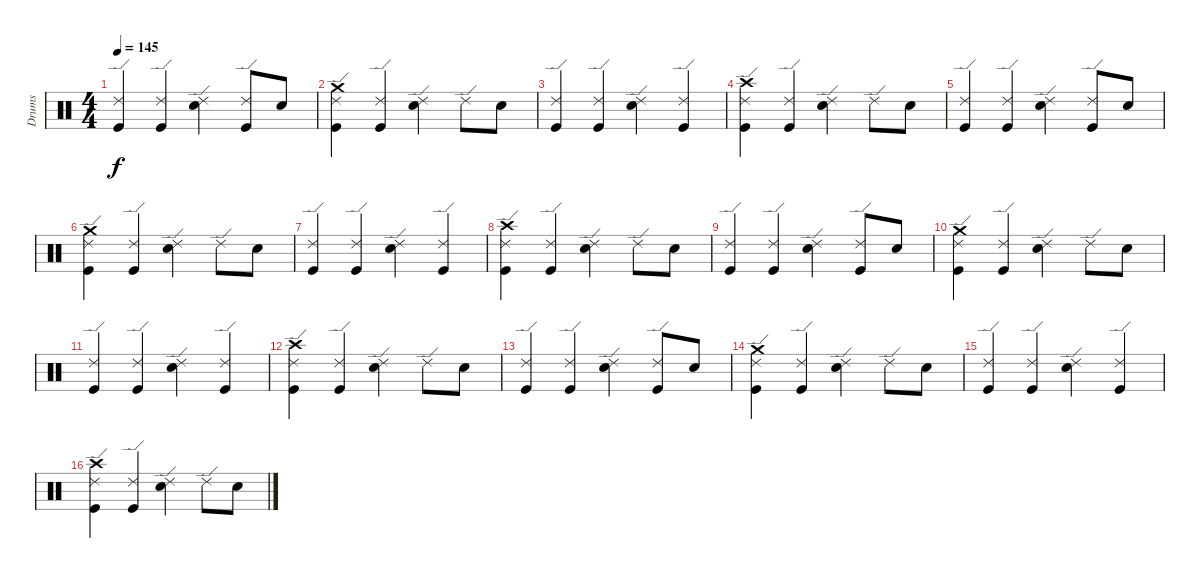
\track ("Drums" "Drums") {instrument percussion}
\staff {score}
\articulation defaults
\ts (4 4)
\tempo 145
\clef neutral
\ks c
("Ride (edge) 2" "Kick (hit)").4{dy f} ("Ride (edge) 2" "Kick (hit)").4 ("Ride (edge) 2" "Electric Snare (hit)").4 ("Ride (edge) 2" "Kick (hit)").8 "Electric Snare (hit)".8 |
("Ride (edge) 2" "Crash medium (hit)" "Kick (hit)").4 ("Ride (edge) 2" "Kick (hit)").4 ("Ride (edge) 2" "Electric Snare (hit)").4 "Ride (edge) 2".8 "Electric Snare (hit)".8 |
("Ride (edge) 2" "Kick (hit)").4 ("Ride (edge) 2" "Kick (hit)").4 ("Ride (edge) 2" "Electric Snare (hit)").4 ("Ride (edge) 2" "Kick (hit)").4 |
("Ride (edge) 2" "Crash high (hit)" "Kick (hit)").4 ("Ride (edge) 2" "Kick (hit)").4 ("Ride (edge) 2" "Electric Snare (hit)").4 "Ride (edge) 2".8 "Electric Snare (hit)".8 |
("Ride (edge) 2" "Kick (hit)").4 ("Ride (edge) 2" "Kick (hit)").4 ("Ride (edge) 2" "Electric Snare (hit)").4 ("Ride (edge) 2" "Kick (hit)").8 "Electric Snare (hit)".8 |
("Ride (edge) 2" "Crash medium (hit)" "Kick (hit)").4 ("Ride (edge) 2" "Kick (hit)").4 ("Ride (edge) 2" "Electric Snare (hit)").4 "Ride (edge) 2".8 "Electric Snare (hit)".8 |
("Ride (edge) 2" "Kick (hit)").4 ("Ride (edge) 2" "Kick (hit)").4 ("Ride (edge) 2" "Electric Snare (hit)").4 ("Ride (edge) 2" "Kick (hit)").4 |
("Ride (edge) 2" "Crash high (hit)" "Kick (hit)").4 ("Ride (edge) 2" "Kick (hit)").4 ("Ride (edge) 2" "Electric Snare (hit)").4 "Ride (edge) 2".8 "Electric Snare (hit)".8 |
("Ride (edge) 2" "Kick (hit)").4 ("Ride (edge) 2" "Kick (hit)").4 ("Ride (edge) 2" "Electric Snare (hit)").4 ("Ride (edge) 2" "Kick (hit)").8 "Electric Snare (hit)".8 |
("Ride (edge) 2" "Crash medium (hit)" "Kick (hit)").4 ("Ride (edge) 2" "Kick (hit)").4 ("Ride (edge) 2" "Electric Snare (hit)").4 "Ride (edge) 2".8 "Electric Snare (hit)".8 |
("Ride (edge) 2" "Kick (hit)").4 ("Ride (edge) 2" "Kick (hit)").4 ("Ride (edge) 2" "Electric Snare (hit)").4 ("Ride (edge) 2" "Kick (hit)").4 |
("Ride (edge) 2" "Crash high (hit)" "Kick (hit)").4 ("Ride (edge) 2" "Kick (hit)").4 ("Ride (edge) 2" "Electric Snare (hit)").4 "Ride (edge) 2".8 "Electric Snare (hit)".8 |
("Ride (edge) 2" "Kick (hit)").4 ("Ride (edge) 2" "Kick (hit)").4 ("Ride (edge) 2" "Electric Snare (hit)").4 ("Ride (edge) 2" "Kick (hit)").8 "Electric Snare (hit)".8 |
("Ride (edge) 2" "Crash medium (hit)" "Kick (hit)").4 ("Ride (edge) 2" "Kick (hit)").4 ("Ride (edge) 2" "Electric Snare (hit)").4 "Ride (edge) 2".8 "Electric Snare (hit)".8 |
("Ride (edge) 2" "Kick (hit)").4 ("Ride (edge) 2" "Kick (hit)").4 ("Ride (edge) 2" "Electric Snare (hit)").4 ("Ride (edge) 2" "Kick (hit)").4 |
("Ride (edge) 2" "Crash high (hit)" "Kick (hit)").4 ("Ride (edge) 2" "Kick (hit)").4 ("Ride (edge) 2" "Electric Snare (hit)").4 "Ride (edge) 2".8 "Electric Snare (hit)".8
